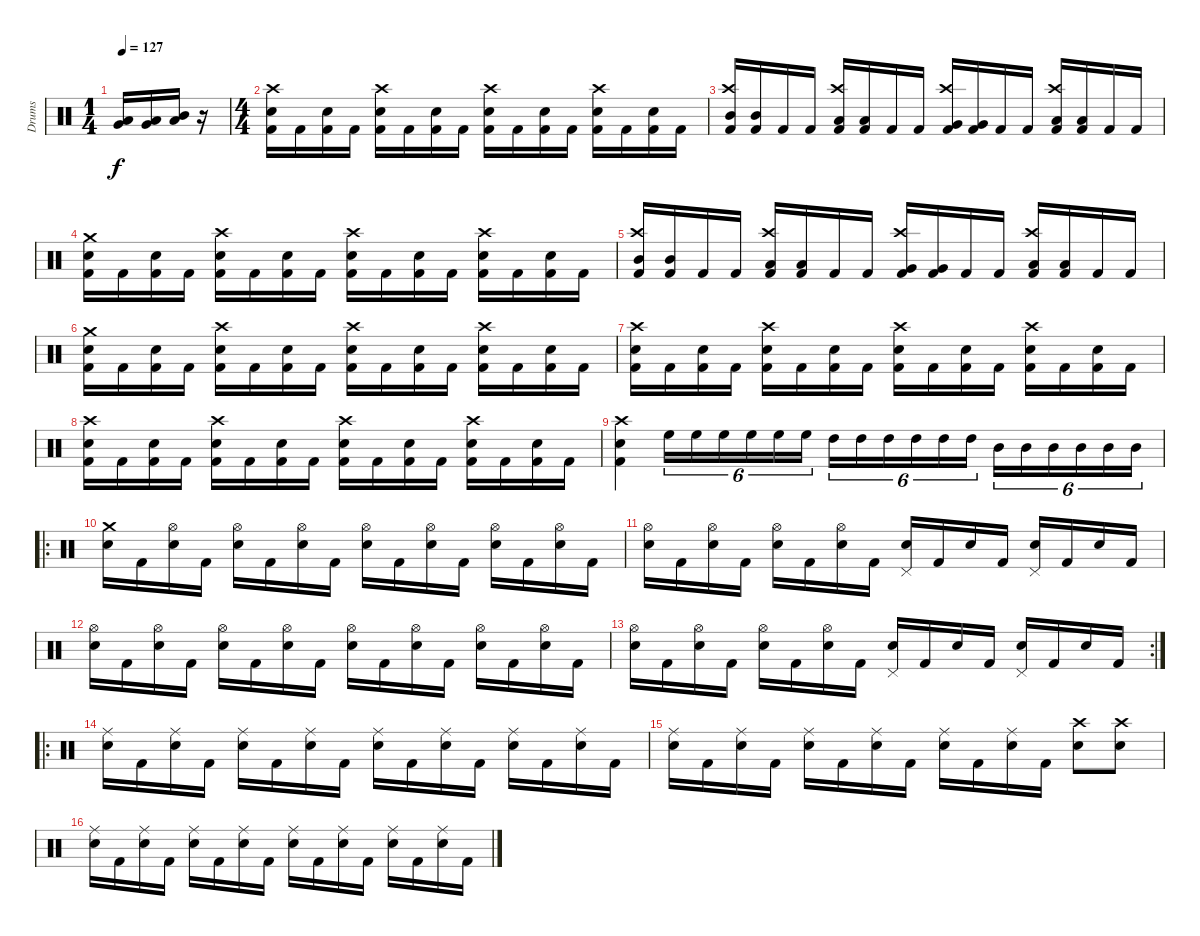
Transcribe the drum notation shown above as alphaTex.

\track ("Drums" "Drums") {instrument percussion}
\staff {score}
\articulation defaults
\ts (1 4)
\tempo 127
\clef neutral
\ks c
("Very Low Tom (hit)" "Low Floor Tom (hit)").16{dy f} ("Low Tom (hit)" "Very Low Tom (hit)").16 ("Mid Tom (hit)" "Low Tom (hit)").16 r.16 |
\ts (4 4)
("Crash high (hit)" "Snare (hit) 2" "Kick (hit) 2").16 "Kick (hit) 2".16 ("Snare (hit) 2" "Kick (hit) 2").16 "Kick (hit) 2".16 ("Crash high (hit)" "Snare (hit) 2" "Kick (hit) 2").16 "Kick (hit) 2".16 ("Snare (hit) 2" "Kick (hit) 2").16 "Kick (hit) 2".16 ("Crash high (hit)" "Snare (hit) 2" "Kick (hit) 2").16 "Kick (hit) 2".16 ("Snare (hit) 2" "Kick (hit) 2").16 "Kick (hit) 2".16 ("Crash high (hit)" "Snare (hit) 2" "Kick (hit) 2").16 "Kick (hit) 2".16 ("Snare (hit) 2" "Kick (hit) 2").16 "Kick (hit) 2".16 |
("Crash high (hit)" "Mid Tom (hit)" "Kick (hit) 2").16 ("Mid Tom (hit)" "Kick (hit) 2").16 "Kick (hit) 2".16 "Kick (hit) 2".16 ("Crash high (hit)" "Low Tom (hit)" "Kick (hit) 2").16 ("Low Tom (hit)" "Kick (hit) 2").16 "Kick (hit) 2".16 "Kick (hit) 2".16 ("Crash high (hit)" "Very Low Tom (hit)" "Kick (hit) 2").16 ("Very Low Tom (hit)" "Kick (hit) 2").16 "Kick (hit) 2".16 "Kick (hit) 2".16 ("Crash high (hit)" "Low Floor Tom (hit)" "Kick (hit) 2").16 ("Low Floor Tom (hit)" "Kick (hit) 2").16 "Kick (hit) 2".16 "Kick (hit) 2".16 |
("Crash medium (hit)" "Snare (hit) 2" "Kick (hit) 2").16 "Kick (hit) 2".16 ("Snare (hit) 2" "Kick (hit) 2").16 "Kick (hit) 2".16 ("Crash high (hit)" "Snare (hit) 2" "Kick (hit) 2").16 "Kick (hit) 2".16 ("Snare (hit) 2" "Kick (hit) 2").16 "Kick (hit) 2".16 ("Crash high (hit)" "Snare (hit) 2" "Kick (hit) 2").16 "Kick (hit) 2".16 ("Snare (hit) 2" "Kick (hit) 2").16 "Kick (hit) 2".16 ("Crash high (hit)" "Snare (hit) 2" "Kick (hit) 2").16 "Kick (hit) 2".16 ("Snare (hit) 2" "Kick (hit) 2").16 "Kick (hit) 2".16 |
("Crash high (hit)" "Mid Tom (hit)" "Kick (hit) 2").16 ("Mid Tom (hit)" "Kick (hit) 2").16 "Kick (hit) 2".16 "Kick (hit) 2".16 ("Crash high (hit)" "Low Tom (hit)" "Kick (hit) 2").16 ("Low Tom (hit)" "Kick (hit) 2").16 "Kick (hit) 2".16 "Kick (hit) 2".16 ("Crash high (hit)" "Very Low Tom (hit)" "Kick (hit) 2").16 ("Very Low Tom (hit)" "Kick (hit) 2").16 "Kick (hit) 2".16 "Kick (hit) 2".16 ("Crash high (hit)" "Low Floor Tom (hit)" "Kick (hit) 2").16 ("Low Floor Tom (hit)" "Kick (hit) 2").16 "Kick (hit) 2".16 "Kick (hit) 2".16 |
("Crash medium (hit)" "Snare (hit) 2" "Kick (hit) 2").16 "Kick (hit) 2".16 ("Snare (hit) 2" "Kick (hit) 2").16 "Kick (hit) 2".16 ("Crash high (hit)" "Snare (hit) 2" "Kick (hit) 2").16 "Kick (hit) 2".16 ("Snare (hit) 2" "Kick (hit) 2").16 "Kick (hit) 2".16 ("Crash high (hit)" "Snare (hit) 2" "Kick (hit) 2").16 "Kick (hit) 2".16 ("Snare (hit) 2" "Kick (hit) 2").16 "Kick (hit) 2".16 ("Crash high (hit)" "Snare (hit) 2" "Kick (hit) 2").16 "Kick (hit) 2".16 ("Snare (hit) 2" "Kick (hit) 2").16 "Kick (hit) 2".16 |
("Crash high (hit)" "Snare (hit) 2" "Kick (hit) 2").16 "Kick (hit) 2".16 ("Snare (hit) 2" "Kick (hit) 2").16 "Kick (hit) 2".16 ("Crash high (hit)" "Snare (hit) 2" "Kick (hit) 2").16 "Kick (hit) 2".16 ("Snare (hit) 2" "Kick (hit) 2").16 "Kick (hit) 2".16 ("Crash high (hit)" "Snare (hit) 2" "Kick (hit) 2").16 "Kick (hit) 2".16 ("Snare (hit) 2" "Kick (hit) 2").16 "Kick (hit) 2".16 ("Crash high (hit)" "Snare (hit) 2" "Kick (hit) 2").16 "Kick (hit) 2".16 ("Snare (hit) 2" "Kick (hit) 2").16 "Kick (hit) 2".16 |
("Crash high (hit)" "Snare (hit) 2" "Kick (hit) 2").16 "Kick (hit) 2".16 ("Snare (hit) 2" "Kick (hit) 2").16 "Kick (hit) 2".16 ("Crash high (hit)" "Snare (hit) 2" "Kick (hit) 2").16 "Kick (hit) 2".16 ("Snare (hit) 2" "Kick (hit) 2").16 "Kick (hit) 2".16 ("Crash high (hit)" "Snare (hit) 2" "Kick (hit) 2").16 "Kick (hit) 2".16 ("Snare (hit) 2" "Kick (hit) 2").16 "Kick (hit) 2".16 ("Crash high (hit)" "Snare (hit) 2" "Kick (hit) 2").16 "Kick (hit) 2".16 ("Snare (hit) 2" "Kick (hit) 2").16 "Kick (hit) 2".16 |
("Crash high (hit)" "Snare (hit) 2" "Kick (hit) 2").4 "High Floor Tom (hit)".16{tu (6 4)} "High Floor Tom (hit)".16{tu (6 4)} "High Floor Tom (hit)".16{tu (6 4)} "High Floor Tom (hit)".16{tu (6 4)} "High Floor Tom (hit)".16{tu (6 4)} "High Floor Tom (hit)".16{tu (6 4)} "High Tom (hit)".16{tu (6 4)} "High Tom (hit)".16{tu (6 4)} "High Tom (hit)".16{tu (6 4)} "High Tom (hit)".16{tu (6 4)} "High Tom (hit)".16{tu (6 4)} "High Tom (hit)".16{tu (6 4)} "Mid Tom (hit)".16{tu (6 4)} "Mid Tom (hit)".16{tu (6 4)} "Mid Tom (hit)".16{tu (6 4)} "Mid Tom (hit)".16{tu (6 4)} "Mid Tom (hit)".16{tu (6 4)} "Mid Tom (hit)".16{tu (6 4)} |
\ro
("Crash medium (hit)" "Snare (hit) 2").16 "Kick (hit) 2".16 ("Hi-Hat (open)" "Snare (hit) 2").16 "Kick (hit) 2".16 ("Hi-Hat (open)" "Snare (hit) 2").16 "Kick (hit) 2".16 ("Hi-Hat (open)" "Snare (hit) 2").16 "Kick (hit) 2".16 ("Hi-Hat (open)" "Snare (hit) 2").16 "Kick (hit) 2".16 ("Hi-Hat (open)" "Snare (hit) 2").16 "Kick (hit) 2".16 ("Hi-Hat (open)" "Snare (hit) 2").16 "Kick (hit) 2".16 ("Hi-Hat (open)" "Snare (hit) 2").16 "Kick (hit) 2".16 |
("Hi-Hat (open)" "Snare (hit) 2").16 "Kick (hit) 2".16 ("Hi-Hat (open)" "Snare (hit) 2").16 "Kick (hit) 2".16 ("Hi-Hat (open)" "Snare (hit) 2").16 "Kick (hit) 2".16 ("Hi-Hat (open)" "Snare (hit) 2").16 "Kick (hit) 2".16 ("Pedal Hi-Hat (hit)" "Snare (hit) 2").16 "Kick (hit) 2".16 "Snare (hit) 2".16 "Kick (hit) 2".16 ("Pedal Hi-Hat (hit)" "Snare (hit) 2").16 "Kick (hit) 2".16 "Snare (hit) 2".16 "Kick (hit) 2".16 |
("Hi-Hat (open)" "Snare (hit) 2").16 "Kick (hit) 2".16 ("Hi-Hat (open)" "Snare (hit) 2").16 "Kick (hit) 2".16 ("Hi-Hat (open)" "Snare (hit) 2").16 "Kick (hit) 2".16 ("Hi-Hat (open)" "Snare (hit) 2").16 "Kick (hit) 2".16 ("Hi-Hat (open)" "Snare (hit) 2").16 "Kick (hit) 2".16 ("Hi-Hat (open)" "Snare (hit) 2").16 "Kick (hit) 2".16 ("Hi-Hat (open)" "Snare (hit) 2").16 "Kick (hit) 2".16 ("Hi-Hat (open)" "Snare (hit) 2").16 "Kick (hit) 2".16 |
\rc 2
("Hi-Hat (open)" "Snare (hit) 2").16 "Kick (hit) 2".16 ("Hi-Hat (open)" "Snare (hit) 2").16 "Kick (hit) 2".16 ("Hi-Hat (open)" "Snare (hit) 2").16 "Kick (hit) 2".16 ("Hi-Hat (open)" "Snare (hit) 2").16 "Kick (hit) 2".16 ("Pedal Hi-Hat (hit)" "Snare (hit) 2").16 "Kick (hit) 2".16 "Snare (hit) 2".16 "Kick (hit) 2".16 ("Pedal Hi-Hat (hit)" "Snare (hit) 2").16 "Kick (hit) 2".16 "Snare (hit) 2".16 "Kick (hit) 2".16 |
\ro
("Ride (middle)" "Snare (hit) 2").16 "Kick (hit) 2".16 ("Ride (middle)" "Snare (hit) 2").16 "Kick (hit) 2".16 ("Ride (middle)" "Snare (hit) 2").16 "Kick (hit) 2".16 ("Ride (middle)" "Snare (hit) 2").16 "Kick (hit) 2".16 ("Ride (middle)" "Snare (hit) 2").16 "Kick (hit) 2".16 ("Ride (middle)" "Snare (hit) 2").16 "Kick (hit) 2".16 ("Ride (middle)" "Snare (hit) 2").16 "Kick (hit) 2".16 ("Ride (middle)" "Snare (hit) 2").16 "Kick (hit) 2".16 |
("Ride (middle)" "Snare (hit) 2").16 "Kick (hit) 2".16 ("Ride (middle)" "Snare (hit) 2").16 "Kick (hit) 2".16 ("Ride (middle)" "Snare (hit) 2").16 "Kick (hit) 2".16 ("Ride (middle)" "Snare (hit) 2").16 "Kick (hit) 2".16 ("Ride (middle)" "Snare (hit) 2").16 "Kick (hit) 2".16 ("Ride (middle)" "Snare (hit) 2").16 "Kick (hit) 2".16 ("Crash high (hit)" "Snare (hit) 2").8 ("Crash high (hit)" "Snare (hit) 2").8 |
("Ride (middle)" "Snare (hit) 2").16 "Kick (hit) 2".16 ("Ride (middle)" "Snare (hit) 2").16 "Kick (hit) 2".16 ("Ride (middle)" "Snare (hit) 2").16 "Kick (hit) 2".16 ("Ride (middle)" "Snare (hit) 2").16 "Kick (hit) 2".16 ("Ride (middle)" "Snare (hit) 2").16 "Kick (hit) 2".16 ("Ride (middle)" "Snare (hit) 2").16 "Kick (hit) 2".16 ("Ride (middle)" "Snare (hit) 2").16 "Kick (hit) 2".16 ("Ride (middle)" "Snare (hit) 2").16 "Kick (hit) 2".16
